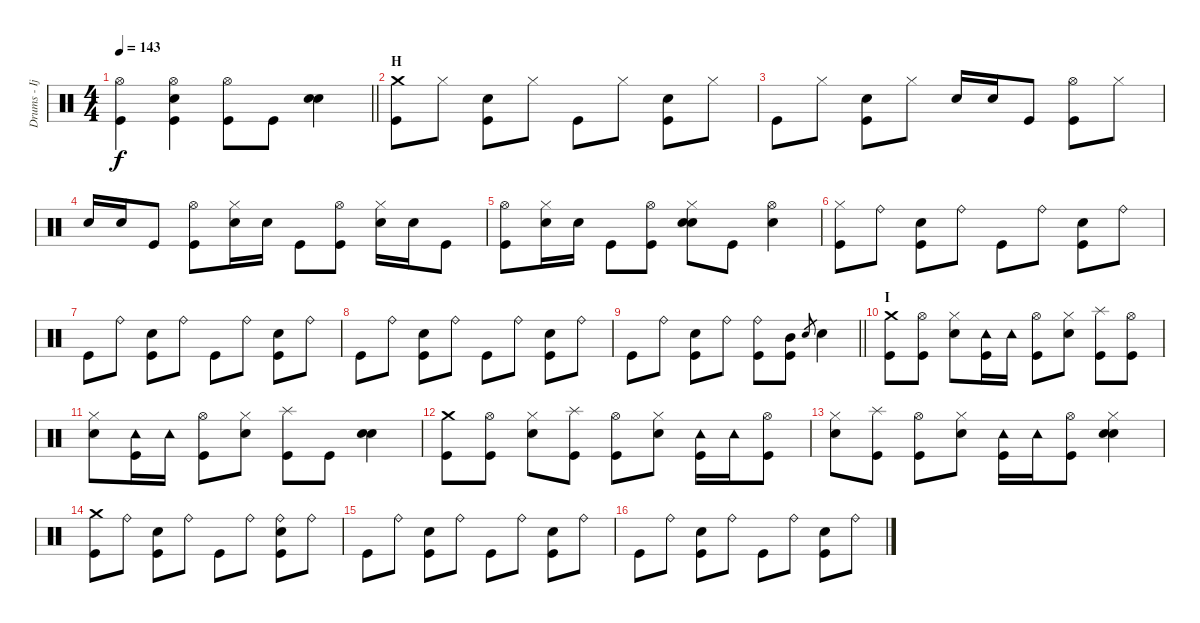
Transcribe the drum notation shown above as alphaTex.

\track ("Drums - Ijichi" "Drums - Ij") {instrument percussion}
\staff {score}
\articulation defaults
\ts (4 4)
\tempo 143
\clef neutral
\barLineRight lightlight
\ks c
("Hi-Hat (open)" "Kick (hit)").4{dy f} ("Hi-Hat (open)" "Electric Snare (hit)" "Kick (hit)").4 ("Hi-Hat (open)" "Kick (hit)").8 "Kick (hit)".8 ("Electric Snare (hit)" "Electric Snare (hit)").4 |
\section ("" "H")
("Crash medium (hit)" "Kick (hit)").8 "Hi-Hat (closed)".8 ("Electric Snare (hit)" "Kick (hit)").8 "Hi-Hat (closed)".8 "Kick (hit)".8 "Hi-Hat (closed)".8 ("Electric Snare (hit)" "Kick (hit)").8 "Hi-Hat (closed)".8 |
"Kick (hit)".8 "Hi-Hat (closed)".8 ("Electric Snare (hit)" "Kick (hit)").8 "Hi-Hat (closed)".8 "Electric Snare (hit)".16 "Electric Snare (hit)".16 "Kick (hit)".8 ("Hi-Hat (open)" "Kick (hit)").8 "Hi-Hat (closed)".8 |
"Electric Snare (hit)".16 "Electric Snare (hit)".16 "Kick (hit)".8 ("Hi-Hat (open)" "Kick (hit)").8 ("Hi-Hat (closed)" "Electric Snare (hit)").16 "Electric Snare (hit)".16 "Kick (hit)".8 ("Hi-Hat (open)" "Kick (hit)").8 ("Hi-Hat (closed)" "Electric Snare (hit)").16 "Electric Snare (hit)".16 "Kick (hit)".8 |
("Hi-Hat (open)" "Kick (hit)").8 ("Hi-Hat (closed)" "Electric Snare (hit)").16 "Electric Snare (hit)".16 "Kick (hit)".8 ("Hi-Hat (open)" "Kick (hit)").8 ("Hi-Hat (closed)" "Electric Snare (hit)" "Electric Snare (hit)").8 "Kick (hit)".8 ("Hi-Hat (open)" "Electric Snare (hit)").4 |
("Hi-Hat (closed)" "Kick (hit)").8 "Ride (bell)".8 ("Electric Snare (hit)" "Kick (hit)").8 "Ride (bell)".8 "Kick (hit)".8 "Ride (bell)".8 ("Electric Snare (hit)" "Kick (hit)").8 "Ride (bell)".8 |
"Kick (hit)".8 "Ride (bell)".8 ("Electric Snare (hit)" "Kick (hit)").8 "Ride (bell)".8 "Kick (hit)".8 "Ride (bell)".8 ("Electric Snare (hit)" "Kick (hit)").8 "Ride (bell)".8 |
"Kick (hit)".8 "Ride (bell)".8 ("Electric Snare (hit)" "Kick (hit)").8 "Ride (bell)".8 "Kick (hit)".8 "Ride (bell)".8 ("Electric Snare (hit)" "Kick (hit)").8 "Ride (bell)".8 |
\barLineRight lightlight "Kick (hit)".8 "Ride (bell)".8
("Electric Snare (hit)" "Kick (hit)").8 "Ride (bell)".8 ("Ride (bell)" "Kick (hit)").8 ("Mid Tom (hit)" "Kick (hit)").8 "Electric Snare (hit)".8{gr} "Electric Snare (hit)".4 |
\section ("" "I")
("Crash medium (hit)" "Kick (hit)").8 ("Hi-Hat (open)" "Kick (hit)").8 ("Hi-Hat (closed)" "Electric Snare (hit)").8 ("Tambourine (hit)" "Kick (hit)").16 "Tambourine (hit)".16 ("Hi-Hat (open)" "Kick (hit)").8 ("Hi-Hat (closed)" "Electric Snare (hit)").8 ("Splash (hit)" "Kick (hit)").8 ("Hi-Hat (open)" "Kick (hit)").8 |
("Hi-Hat (closed)" "Electric Snare (hit)").8 ("Tambourine (hit)" "Kick (hit)").16 "Tambourine (hit)".16 ("Hi-Hat (open)" "Kick (hit)").8 ("Hi-Hat (closed)" "Electric Snare (hit)").8 ("Splash (hit)" "Kick (hit)").8 "Kick (hit)".8 ("Electric Snare (hit)" "Electric Snare (hit)").4 |
("Crash medium (hit)" "Kick (hit)").8 ("Hi-Hat (open)" "Kick (hit)").8 ("Hi-Hat (closed)" "Electric Snare (hit)").8 ("Splash (hit)" "Kick (hit)").8 ("Hi-Hat (open)" "Kick (hit)").8 ("Hi-Hat (closed)" "Electric Snare (hit)").8 ("Tambourine (hit)" "Kick (hit)").16 "Tambourine (hit)".16 ("Hi-Hat (open)" "Kick (hit)").8 |
("Hi-Hat (closed)" "Electric Snare (hit)").8 ("Splash (hit)" "Kick (hit)").8 ("Hi-Hat (open)" "Kick (hit)").8 ("Hi-Hat (closed)" "Electric Snare (hit)").8 ("Tambourine (hit)" "Kick (hit)").16 "Tambourine (hit)".16 ("Hi-Hat (open)" "Kick (hit)").8 ("Hi-Hat (closed)" "Electric Snare (hit)" "Electric Snare (hit)").4 |
("Crash medium (hit)" "Kick (hit)").8 "Ride (bell)".8 ("Electric Snare (hit)" "Kick (hit)").8 "Ride (bell)".8 "Kick (hit)".8 "Ride (bell)".8 ("Ride (bell)" "Electric Snare (hit)" "Kick (hit)").8 "Ride (bell)".8 |
"Kick (hit)".8 "Ride (bell)".8 ("Electric Snare (hit)" "Kick (hit)").8 "Ride (bell)".8 "Kick (hit)".8 "Ride (bell)".8 ("Electric Snare (hit)" "Kick (hit)").8 "Ride (bell)".8 |
"Kick (hit)".8 "Ride (bell)".8 ("Electric Snare (hit)" "Kick (hit)").8 "Ride (bell)".8 "Kick (hit)".8 "Ride (bell)".8 ("Electric Snare (hit)" "Kick (hit)").8 "Ride (bell)".8
